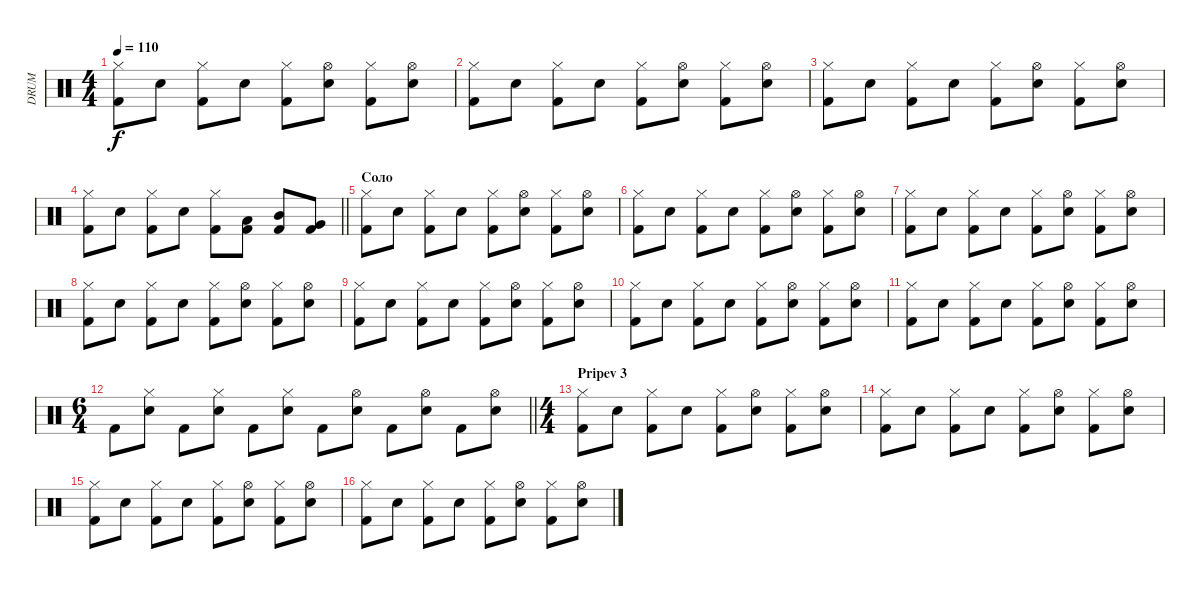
\track ("DRUM" "DRUM") {instrument percussion}
\staff {score}
\articulation defaults
\ts (4 4)
\tempo 110
\clef neutral
\ks c
("Hi-Hat (closed)" "Kick (hit) 2").8{dy f} "Electric Snare (hit)".8 ("Hi-Hat (closed)" "Kick (hit) 2").8 "Electric Snare (hit)".8 ("Hi-Hat (closed)" "Kick (hit) 2").8 ("Hi-Hat (open)" "Electric Snare (hit)").8 ("Hi-Hat (closed)" "Kick (hit) 2").8 ("Hi-Hat (open)" "Electric Snare (hit)").8 |
("Hi-Hat (closed)" "Kick (hit) 2").8 "Electric Snare (hit)".8 ("Hi-Hat (closed)" "Kick (hit) 2").8 "Electric Snare (hit)".8 ("Hi-Hat (closed)" "Kick (hit) 2").8 ("Hi-Hat (open)" "Electric Snare (hit)").8 ("Hi-Hat (closed)" "Kick (hit) 2").8 ("Hi-Hat (open)" "Electric Snare (hit)").8 |
("Hi-Hat (closed)" "Kick (hit) 2").8 "Electric Snare (hit)".8 ("Hi-Hat (closed)" "Kick (hit) 2").8 "Electric Snare (hit)".8 ("Hi-Hat (closed)" "Kick (hit) 2").8 ("Hi-Hat (open)" "Electric Snare (hit)").8 ("Hi-Hat (closed)" "Kick (hit) 2").8 ("Hi-Hat (open)" "Electric Snare (hit)").8 |
\barLineRight lightlight
("Hi-Hat (closed)" "Kick (hit) 2").8 "Electric Snare (hit)".8 ("Hi-Hat (closed)" "Kick (hit) 2").8 "Electric Snare (hit)".8 ("Hi-Hat (closed)" "Kick (hit) 2").8 ("Low Tom (hit)" "Kick (hit) 2").8 ("Mid Tom (hit)" "Kick (hit) 2").8 ("Very Low Tom (hit)" "Kick (hit) 2").8 |
\section ("" "Соло")
("Hi-Hat (closed)" "Kick (hit) 2").8 "Electric Snare (hit)".8 ("Hi-Hat (closed)" "Kick (hit) 2").8 "Electric Snare (hit)".8 ("Hi-Hat (closed)" "Kick (hit) 2").8 ("Hi-Hat (open)" "Electric Snare (hit)").8 ("Hi-Hat (closed)" "Kick (hit) 2").8 ("Hi-Hat (open)" "Electric Snare (hit)").8 |
("Hi-Hat (closed)" "Kick (hit) 2").8 "Electric Snare (hit)".8 ("Hi-Hat (closed)" "Kick (hit) 2").8 "Electric Snare (hit)".8 ("Hi-Hat (closed)" "Kick (hit) 2").8 ("Hi-Hat (open)" "Electric Snare (hit)").8 ("Hi-Hat (closed)" "Kick (hit) 2").8 ("Hi-Hat (open)" "Electric Snare (hit)").8 |
("Hi-Hat (closed)" "Kick (hit) 2").8 "Electric Snare (hit)".8 ("Hi-Hat (closed)" "Kick (hit) 2").8 "Electric Snare (hit)".8 ("Hi-Hat (closed)" "Kick (hit) 2").8 ("Hi-Hat (open)" "Electric Snare (hit)").8 ("Hi-Hat (closed)" "Kick (hit) 2").8 ("Hi-Hat (open)" "Electric Snare (hit)").8 |
("Hi-Hat (closed)" "Kick (hit) 2").8 "Electric Snare (hit)".8 ("Hi-Hat (closed)" "Kick (hit) 2").8 "Electric Snare (hit)".8 ("Hi-Hat (closed)" "Kick (hit) 2").8 ("Hi-Hat (open)" "Electric Snare (hit)").8 ("Hi-Hat (closed)" "Kick (hit) 2").8 ("Hi-Hat (open)" "Electric Snare (hit)").8 |
("Hi-Hat (closed)" "Kick (hit) 2").8 "Electric Snare (hit)".8 ("Hi-Hat (closed)" "Kick (hit) 2").8 "Electric Snare (hit)".8 ("Hi-Hat (closed)" "Kick (hit) 2").8 ("Hi-Hat (open)" "Electric Snare (hit)").8 ("Hi-Hat (closed)" "Kick (hit) 2").8 ("Hi-Hat (open)" "Electric Snare (hit)").8 |
("Hi-Hat (closed)" "Kick (hit) 2").8 "Electric Snare (hit)".8 ("Hi-Hat (closed)" "Kick (hit) 2").8 "Electric Snare (hit)".8 ("Hi-Hat (closed)" "Kick (hit) 2").8 ("Hi-Hat (open)" "Electric Snare (hit)").8 ("Hi-Hat (closed)" "Kick (hit) 2").8 ("Hi-Hat (open)" "Electric Snare (hit)").8 |
("Hi-Hat (closed)" "Kick (hit) 2").8 "Electric Snare (hit)".8 ("Hi-Hat (closed)" "Kick (hit) 2").8 "Electric Snare (hit)".8 ("Hi-Hat (closed)" "Kick (hit) 2").8 ("Hi-Hat (open)" "Electric Snare (hit)").8 ("Hi-Hat (closed)" "Kick (hit) 2").8 ("Hi-Hat (open)" "Electric Snare (hit)").8 |
\ts (6 4)
\barLineRight lightlight "Kick (hit) 2".8
("Hi-Hat (closed)" "Electric Snare (hit)").8 "Kick (hit) 2".8 ("Hi-Hat (closed)" "Electric Snare (hit)").8 "Kick (hit) 2".8 ("Hi-Hat (closed)" "Electric Snare (hit)").8 "Kick (hit) 2".8 ("Hi-Hat (open)" "Electric Snare (hit)").8 "Kick (hit) 2".8 ("Hi-Hat (open)" "Electric Snare (hit)").8 "Kick (hit) 2".8 ("Hi-Hat (open)" "Electric Snare (hit)").8 |
\ts (4 4)
\section ("" "Pripev 3")
("Hi-Hat (closed)" "Kick (hit) 2").8 "Electric Snare (hit)".8 ("Hi-Hat (closed)" "Kick (hit) 2").8 "Electric Snare (hit)".8 ("Hi-Hat (closed)" "Kick (hit) 2").8 ("Hi-Hat (open)" "Electric Snare (hit)").8 ("Hi-Hat (closed)" "Kick (hit) 2").8 ("Hi-Hat (open)" "Electric Snare (hit)").8 |
("Hi-Hat (closed)" "Kick (hit) 2").8 "Electric Snare (hit)".8 ("Hi-Hat (closed)" "Kick (hit) 2").8 "Electric Snare (hit)".8 ("Hi-Hat (closed)" "Kick (hit) 2").8 ("Hi-Hat (open)" "Electric Snare (hit)").8 ("Hi-Hat (closed)" "Kick (hit) 2").8 ("Hi-Hat (open)" "Electric Snare (hit)").8 |
("Hi-Hat (closed)" "Kick (hit) 2").8 "Electric Snare (hit)".8 ("Hi-Hat (closed)" "Kick (hit) 2").8 "Electric Snare (hit)".8 ("Hi-Hat (closed)" "Kick (hit) 2").8 ("Hi-Hat (open)" "Electric Snare (hit)").8 ("Hi-Hat (closed)" "Kick (hit) 2").8 ("Hi-Hat (open)" "Electric Snare (hit)").8 |
("Hi-Hat (closed)" "Kick (hit) 2").8 "Electric Snare (hit)".8 ("Hi-Hat (closed)" "Kick (hit) 2").8 "Electric Snare (hit)".8 ("Hi-Hat (closed)" "Kick (hit) 2").8 ("Hi-Hat (open)" "Electric Snare (hit)").8 ("Hi-Hat (closed)" "Kick (hit) 2").8 ("Hi-Hat (open)" "Electric Snare (hit)").8
